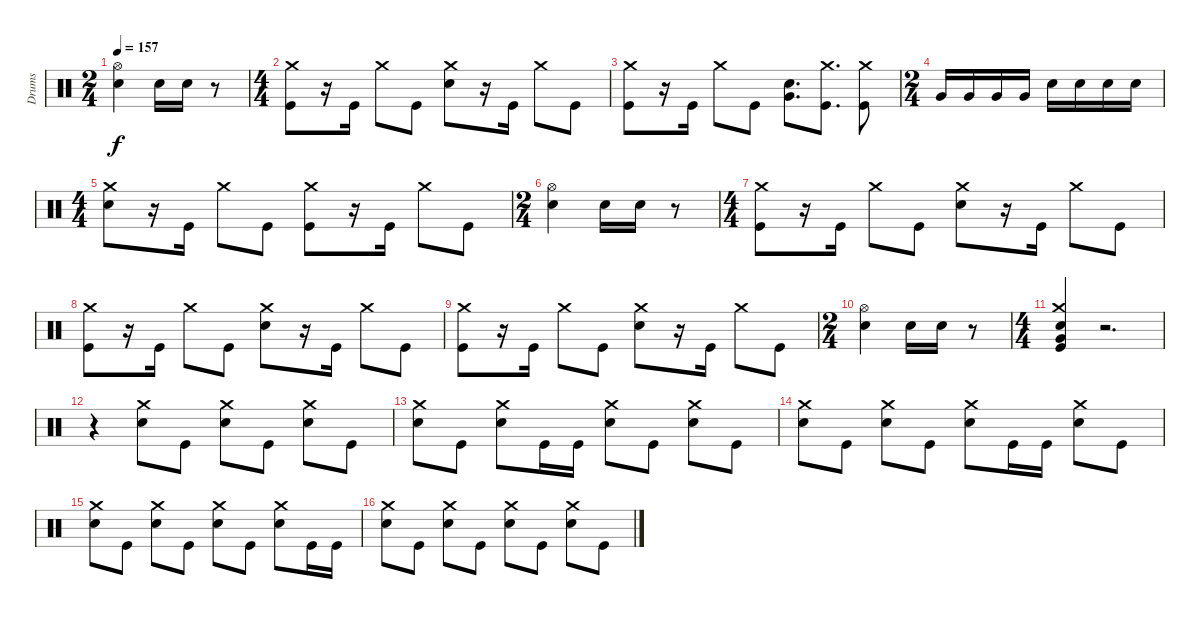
\track ("Drums" "Drums") {instrument percussion}
\staff {score}
\articulation defaults
\ts (2 4)
\tempo 157
\clef neutral
\ks c
("Hi-Hat (open)" "Electric Snare (hit)").4{dy f} "Electric Snare (hit)".16 "Electric Snare (hit)".16 r.8 |
\ts (4 4)
("Crash medium (hit)" "Kick (hit)").8 r.16 "Kick (hit)".16 "Crash medium (hit)".8 "Kick (hit)".8 ("Crash medium (hit)" "Electric Snare (hit)").8 r.16 "Kick (hit)".16 "Crash medium (hit)".8 "Kick (hit)".8 |
("Crash medium (hit)" "Kick (hit)").8 r.16 "Kick (hit)".16 "Crash medium (hit)".8 "Kick (hit)".8 ("Very Low Tom (hit)" "Electric Snare (hit)").8{d} ("Crash medium (hit)" "Kick (hit)").8{d} ("Crash medium (hit)" "Kick (hit)").8 |
\ts (2 4)
"Very Low Tom (hit)".16 "Very Low Tom (hit)".16 "Very Low Tom (hit)".16 "Very Low Tom (hit)".16 "Electric Snare (hit)".16 "Electric Snare (hit)".16 "Electric Snare (hit)".16 "Electric Snare (hit)".16 |
\ts (4 4)
("Crash medium (hit)" "Electric Snare (hit)").8 r.16 "Kick (hit)".16 "Crash medium (hit)".8 "Kick (hit)".8 ("Crash medium (hit)" "Kick (hit)").8 r.16 "Kick (hit)".16 "Crash medium (hit)".8 "Kick (hit)".8 |
\ts (2 4)
("Hi-Hat (open)" "Electric Snare (hit)").4 "Electric Snare (hit)".16 "Electric Snare (hit)".16 r.8 |
\ts (4 4)
("Crash medium (hit)" "Kick (hit)").8 r.16 "Kick (hit)".16 "Crash medium (hit)".8 "Kick (hit)".8 ("Crash medium (hit)" "Electric Snare (hit)").8 r.16 "Kick (hit)".16 "Crash medium (hit)".8 "Kick (hit)".8 |
("Crash medium (hit)" "Kick (hit)").8 r.16 "Kick (hit)".16 "Crash medium (hit)".8 "Kick (hit)".8 ("Crash medium (hit)" "Electric Snare (hit)").8 r.16 "Kick (hit)".16 "Crash medium (hit)".8 "Kick (hit)".8 |
("Crash medium (hit)" "Kick (hit)").8 r.16 "Kick (hit)".16 "Crash medium (hit)".8 "Kick (hit)".8 ("Crash medium (hit)" "Electric Snare (hit)").8 r.16 "Kick (hit)".16 "Crash medium (hit)".8 "Kick (hit)".8 |
\ts (2 4)
("Hi-Hat (open)" "Electric Snare (hit)").4 "Electric Snare (hit)".16 "Electric Snare (hit)".16 r.8 |
\ts (4 4)
("Crash medium (hit)" "Very Low Tom (hit)" "Electric Snare (hit)" "Kick (hit)").4 r.2{d} |
r.4 ("Crash medium (hit)" "Electric Snare (hit)").8 "Kick (hit)".8 ("Crash medium (hit)" "Electric Snare (hit)").8 "Kick (hit)".8 ("Crash medium (hit)" "Electric Snare (hit)").8 "Kick (hit)".8 |
("Crash medium (hit)" "Electric Snare (hit)").8 "Kick (hit)".8 ("Crash medium (hit)" "Electric Snare (hit)").8 "Kick (hit)".16 "Kick (hit)".16 ("Crash medium (hit)" "Electric Snare (hit)").8 "Kick (hit)".8 ("Crash medium (hit)" "Electric Snare (hit)").8 "Kick (hit)".8 |
("Crash medium (hit)" "Electric Snare (hit)").8 "Kick (hit)".8 ("Crash medium (hit)" "Electric Snare (hit)").8 "Kick (hit)".8 ("Crash medium (hit)" "Electric Snare (hit)").8 "Kick (hit)".16 "Kick (hit)".16 ("Crash medium (hit)" "Electric Snare (hit)").8 "Kick (hit)".8 |
("Crash medium (hit)" "Electric Snare (hit)").8 "Kick (hit)".8 ("Crash medium (hit)" "Electric Snare (hit)").8 "Kick (hit)".8 ("Crash medium (hit)" "Electric Snare (hit)").8 "Kick (hit)".8 ("Crash medium (hit)" "Electric Snare (hit)").8 "Kick (hit)".16 "Kick (hit)".16 |
("Crash medium (hit)" "Electric Snare (hit)").8 "Kick (hit)".8 ("Crash medium (hit)" "Electric Snare (hit)").8 "Kick (hit)".8 ("Crash medium (hit)" "Electric Snare (hit)").8 "Kick (hit)".8 ("Crash medium (hit)" "Electric Snare (hit)").8 "Kick (hit)".8
